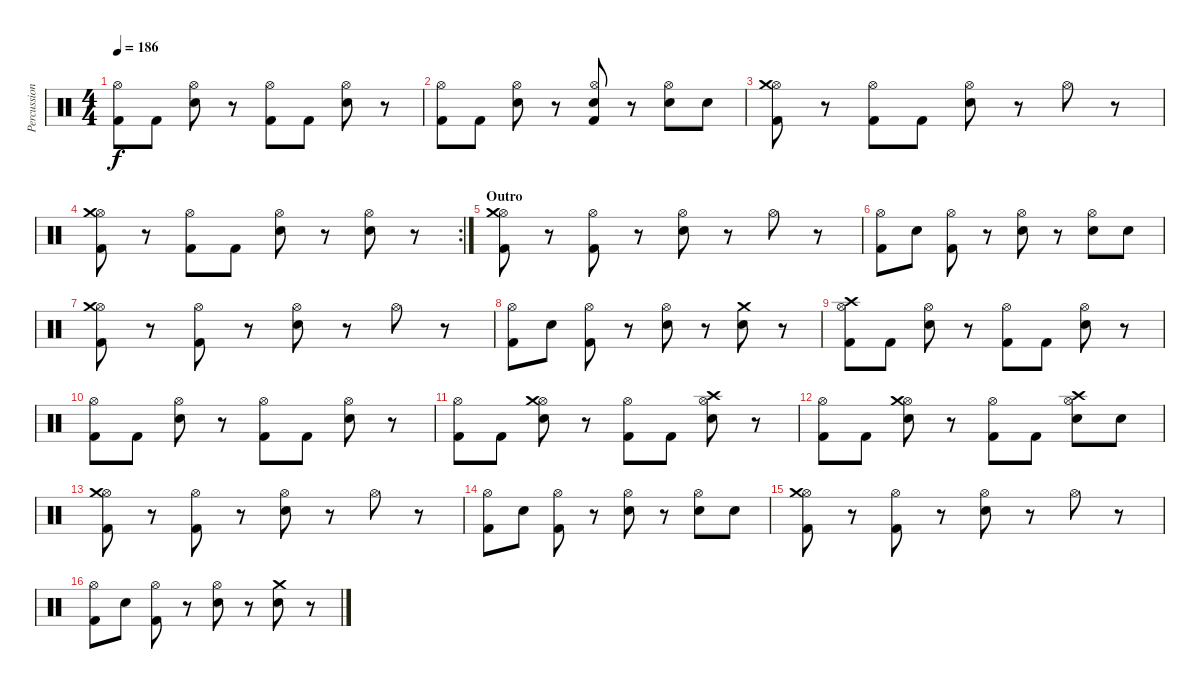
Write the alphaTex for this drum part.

\track ("Percussion" "Percussion") {instrument percussion}
\staff {score}
\articulation defaults
\ts (4 4)
\tempo 186
\clef neutral
\ks c
("Kick (hit) 2" "Hi-Hat (open)").8{dy f} "Kick (hit) 2".8 ("Electric Snare (hit)" "Hi-Hat (open)").8 r.8 ("Kick (hit) 2" "Hi-Hat (open)").8 "Kick (hit) 2".8 ("Electric Snare (hit)" "Hi-Hat (open)").8 r.8 |
("Kick (hit) 2" "Hi-Hat (open)").8 "Kick (hit) 2".8 ("Electric Snare (hit)" "Hi-Hat (open)").8 r.8 ("Kick (hit) 2" "Electric Snare (hit)" "Hi-Hat (open)").8 r.8 ("Electric Snare (hit)" "Hi-Hat (open)").8 "Electric Snare (hit)".8 |
("Kick (hit) 2" "Hi-Hat (open)" "Crash medium (hit)").8 r.8 ("Kick (hit) 2" "Hi-Hat (open)").8 "Kick (hit) 2".8 ("Electric Snare (hit)" "Hi-Hat (open)").8 r.8 "Hi-Hat (open)".8 r.8 |
\rc 2
("Kick (hit) 2" "Hi-Hat (open)" "Crash medium (hit)").8 r.8 ("Kick (hit) 2" "Hi-Hat (open)").8 "Kick (hit) 2".8 ("Electric Snare (hit)" "Hi-Hat (open)").8 r.8 ("Electric Snare (hit)" "Hi-Hat (open)").8 r.8 |
\section ("" "Outro")
("Kick (hit) 2" "Hi-Hat (open)" "Crash medium (hit)").8 r.8 ("Kick (hit) 2" "Hi-Hat (open)").8 r.8 ("Electric Snare (hit)" "Hi-Hat (open)").8 r.8 "Hi-Hat (open)".8 r.8 |
("Kick (hit) 2" "Hi-Hat (open)").8 "Electric Snare (hit)".8 ("Kick (hit) 2" "Hi-Hat (open)").8 r.8 ("Electric Snare (hit)" "Hi-Hat (open)").8 r.8 ("Electric Snare (hit)" "Hi-Hat (open)").8 "Electric Snare (hit)".8 |
("Kick (hit) 2" "Hi-Hat (open)" "Crash medium (hit)").8 r.8 ("Kick (hit) 2" "Hi-Hat (open)").8 r.8 ("Electric Snare (hit)" "Hi-Hat (open)").8 r.8 "Hi-Hat (open)".8 r.8 |
("Kick (hit) 2" "Hi-Hat (open)").8 "Electric Snare (hit)".8 ("Kick (hit) 2" "Hi-Hat (open)").8 r.8 ("Electric Snare (hit)" "Hi-Hat (open)").8 r.8 ("Electric Snare (hit)" "Crash medium (hit)").8 r.8 |
("Kick (hit) 2" "Hi-Hat (open)" "Crash high (hit)").8 "Kick (hit) 2".8 ("Electric Snare (hit)" "Hi-Hat (open)").8 r.8 ("Kick (hit) 2" "Hi-Hat (open)").8 "Kick (hit) 2".8 ("Electric Snare (hit)" "Hi-Hat (open)").8 r.8 |
("Kick (hit) 2" "Hi-Hat (open)").8 "Kick (hit) 2".8 ("Electric Snare (hit)" "Hi-Hat (open)").8 r.8 ("Kick (hit) 2" "Hi-Hat (open)").8 "Kick (hit) 2".8 ("Electric Snare (hit)" "Hi-Hat (open)").8 r.8 |
("Kick (hit) 2" "Hi-Hat (open)").8 "Kick (hit) 2".8 ("Electric Snare (hit)" "Hi-Hat (open)" "Crash medium (hit)").8 r.8 ("Kick (hit) 2" "Hi-Hat (open)").8 "Kick (hit) 2".8 ("Electric Snare (hit)" "Hi-Hat (open)" "Crash high (hit)").8 r.8 |
("Kick (hit) 2" "Hi-Hat (open)").8 "Kick (hit) 2".8 ("Electric Snare (hit)" "Hi-Hat (open)" "Crash medium (hit)").8 r.8 ("Kick (hit) 2" "Hi-Hat (open)").8 "Kick (hit) 2".8 ("Electric Snare (hit)" "Hi-Hat (open)" "Crash high (hit)").8 "Electric Snare (hit)".8 |
("Kick (hit) 2" "Hi-Hat (open)" "Crash medium (hit)").8 r.8 ("Kick (hit) 2" "Hi-Hat (open)").8 r.8 ("Electric Snare (hit)" "Hi-Hat (open)").8 r.8 "Hi-Hat (open)".8 r.8 |
("Kick (hit) 2" "Hi-Hat (open)").8 "Electric Snare (hit)".8 ("Kick (hit) 2" "Hi-Hat (open)").8 r.8 ("Electric Snare (hit)" "Hi-Hat (open)").8 r.8 ("Electric Snare (hit)" "Hi-Hat (open)").8 "Electric Snare (hit)".8 |
("Kick (hit) 2" "Hi-Hat (open)" "Crash medium (hit)").8 r.8 ("Kick (hit) 2" "Hi-Hat (open)").8 r.8 ("Electric Snare (hit)" "Hi-Hat (open)").8 r.8 "Hi-Hat (open)".8 r.8 |
("Kick (hit) 2" "Hi-Hat (open)").8 "Electric Snare (hit)".8 ("Kick (hit) 2" "Hi-Hat (open)").8 r.8 ("Electric Snare (hit)" "Hi-Hat (open)").8 r.8 ("Electric Snare (hit)" "Crash medium (hit)").8 r.8
